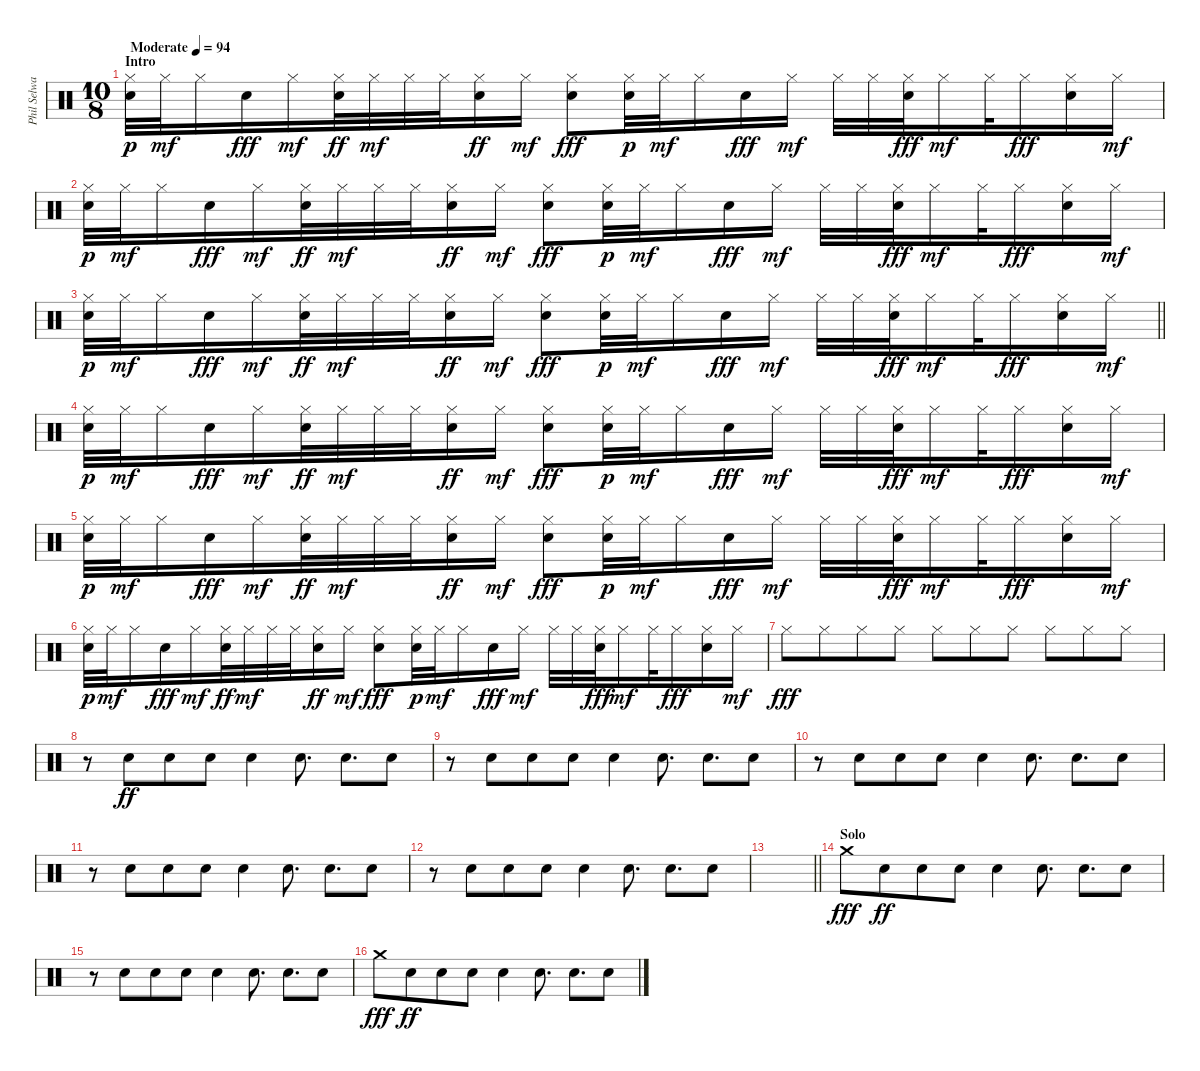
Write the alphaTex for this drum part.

\track ("Phil Selway" "Phil Selwa") {instrument percussion}
\staff {score}
\articulation defaults
\ts (10 8)
\section ("" "Intro")
\tempo (94 "Moderate")
\clef neutral
\ks c
("Hi-Hat (closed)" "Hand Clap (hit)").32{dy p} "Hi-Hat (closed)".32{dy mf} "Hi-Hat (closed)".16 "Hand Clap (hit)".16{dy fff} "Hi-Hat (closed)".16{dy mf} ("Hi-Hat (closed)" "Hand Clap (hit)").32{dy ff} "Hi-Hat (closed)".32{dy mf} "Hi-Hat (closed)".32 "Hi-Hat (closed)".32 ("Hi-Hat (closed)" "Hand Clap (hit)").16{dy ff} "Hi-Hat (closed)".16{dy mf} ("Hi-Hat (closed)" "Hand Clap (hit)").8{dy fff} ("Hi-Hat (closed)" "Hand Clap (hit)").32{dy p} "Hi-Hat (closed)".32{dy mf} "Hi-Hat (closed)".16 "Hand Clap (hit)".16{dy fff} "Hi-Hat (closed)".16{dy mf} "Hi-Hat (closed)".32 "Hi-Hat (closed)".32 ("Hi-Hat (closed)" "Hand Clap (hit)").32{dy fff} "Hi-Hat (closed)".16{dy mf} "Hi-Hat (closed)".32 "Hi-Hat (closed)".16{dy fff} ("Hi-Hat (closed)" "Hand Clap (hit)").16 "Hi-Hat (closed)".16{dy mf} |
("Hi-Hat (closed)" "Hand Clap (hit)").32{dy p} "Hi-Hat (closed)".32{dy mf} "Hi-Hat (closed)".16 "Hand Clap (hit)".16{dy fff} "Hi-Hat (closed)".16{dy mf} ("Hi-Hat (closed)" "Hand Clap (hit)").32{dy ff} "Hi-Hat (closed)".32{dy mf} "Hi-Hat (closed)".32 "Hi-Hat (closed)".32 ("Hi-Hat (closed)" "Hand Clap (hit)").16{dy ff} "Hi-Hat (closed)".16{dy mf} ("Hi-Hat (closed)" "Hand Clap (hit)").8{dy fff} ("Hi-Hat (closed)" "Hand Clap (hit)").32{dy p} "Hi-Hat (closed)".32{dy mf} "Hi-Hat (closed)".16 "Hand Clap (hit)".16{dy fff} "Hi-Hat (closed)".16{dy mf} "Hi-Hat (closed)".32 "Hi-Hat (closed)".32 ("Hi-Hat (closed)" "Hand Clap (hit)").32{dy fff} "Hi-Hat (closed)".16{dy mf} "Hi-Hat (closed)".32 "Hi-Hat (closed)".16{dy fff} ("Hi-Hat (closed)" "Hand Clap (hit)").16 "Hi-Hat (closed)".16{dy mf} |
\barLineRight lightlight
("Hi-Hat (closed)" "Hand Clap (hit)").32{dy p} "Hi-Hat (closed)".32{dy mf} "Hi-Hat (closed)".16 "Hand Clap (hit)".16{dy fff} "Hi-Hat (closed)".16{dy mf} ("Hi-Hat (closed)" "Hand Clap (hit)").32{dy ff} "Hi-Hat (closed)".32{dy mf} "Hi-Hat (closed)".32 "Hi-Hat (closed)".32 ("Hi-Hat (closed)" "Hand Clap (hit)").16{dy ff} "Hi-Hat (closed)".16{dy mf} ("Hi-Hat (closed)" "Hand Clap (hit)").8{dy fff} ("Hi-Hat (closed)" "Hand Clap (hit)").32{dy p} "Hi-Hat (closed)".32{dy mf} "Hi-Hat (closed)".16 "Hand Clap (hit)".16{dy fff} "Hi-Hat (closed)".16{dy mf} "Hi-Hat (closed)".32 "Hi-Hat (closed)".32 ("Hi-Hat (closed)" "Hand Clap (hit)").32{dy fff} "Hi-Hat (closed)".16{dy mf} "Hi-Hat (closed)".32 "Hi-Hat (closed)".16{dy fff} ("Hi-Hat (closed)" "Hand Clap (hit)").16 "Hi-Hat (closed)".16{dy mf} |
\section ("" "")
("Hi-Hat (closed)" "Hand Clap (hit)").32{dy p} "Hi-Hat (closed)".32{dy mf} "Hi-Hat (closed)".16 "Hand Clap (hit)".16{dy fff} "Hi-Hat (closed)".16{dy mf} ("Hi-Hat (closed)" "Hand Clap (hit)").32{dy ff} "Hi-Hat (closed)".32{dy mf} "Hi-Hat (closed)".32 "Hi-Hat (closed)".32 ("Hi-Hat (closed)" "Hand Clap (hit)").16{dy ff} "Hi-Hat (closed)".16{dy mf} ("Hi-Hat (closed)" "Hand Clap (hit)").8{dy fff} ("Hi-Hat (closed)" "Hand Clap (hit)").32{dy p} "Hi-Hat (closed)".32{dy mf} "Hi-Hat (closed)".16 "Hand Clap (hit)".16{dy fff} "Hi-Hat (closed)".16{dy mf} "Hi-Hat (closed)".32 "Hi-Hat (closed)".32 ("Hi-Hat (closed)" "Hand Clap (hit)").32{dy fff} "Hi-Hat (closed)".16{dy mf} "Hi-Hat (closed)".32 "Hi-Hat (closed)".16{dy fff} ("Hi-Hat (closed)" "Hand Clap (hit)").16 "Hi-Hat (closed)".16{dy mf} |
("Hi-Hat (closed)" "Hand Clap (hit)").32{dy p} "Hi-Hat (closed)".32{dy mf} "Hi-Hat (closed)".16 "Hand Clap (hit)".16{dy fff} "Hi-Hat (closed)".16{dy mf} ("Hi-Hat (closed)" "Hand Clap (hit)").32{dy ff} "Hi-Hat (closed)".32{dy mf} "Hi-Hat (closed)".32 "Hi-Hat (closed)".32 ("Hi-Hat (closed)" "Hand Clap (hit)").16{dy ff} "Hi-Hat (closed)".16{dy mf} ("Hi-Hat (closed)" "Hand Clap (hit)").8{dy fff} ("Hi-Hat (closed)" "Hand Clap (hit)").32{dy p} "Hi-Hat (closed)".32{dy mf} "Hi-Hat (closed)".16 "Hand Clap (hit)".16{dy fff} "Hi-Hat (closed)".16{dy mf} "Hi-Hat (closed)".32 "Hi-Hat (closed)".32 ("Hi-Hat (closed)" "Hand Clap (hit)").32{dy fff} "Hi-Hat (closed)".16{dy mf} "Hi-Hat (closed)".32 "Hi-Hat (closed)".16{dy fff} ("Hi-Hat (closed)" "Hand Clap (hit)").16 "Hi-Hat (closed)".16{dy mf} |
("Hi-Hat (closed)" "Hand Clap (hit)").32{dy p} "Hi-Hat (closed)".32{dy mf} "Hi-Hat (closed)".16 "Hand Clap (hit)".16{dy fff} "Hi-Hat (closed)".16{dy mf} ("Hi-Hat (closed)" "Hand Clap (hit)").32{dy ff} "Hi-Hat (closed)".32{dy mf} "Hi-Hat (closed)".32 "Hi-Hat (closed)".32 ("Hi-Hat (closed)" "Hand Clap (hit)").16{dy ff} "Hi-Hat (closed)".16{dy mf} ("Hi-Hat (closed)" "Hand Clap (hit)").8{dy fff} ("Hi-Hat (closed)" "Hand Clap (hit)").32{dy p} "Hi-Hat (closed)".32{dy mf} "Hi-Hat (closed)".16 "Hand Clap (hit)".16{dy fff} "Hi-Hat (closed)".16{dy mf} "Hi-Hat (closed)".32 "Hi-Hat (closed)".32 ("Hi-Hat (closed)" "Hand Clap (hit)").32{dy fff} "Hi-Hat (closed)".16{dy mf} "Hi-Hat (closed)".32 "Hi-Hat (closed)".16{dy fff} ("Hi-Hat (closed)" "Hand Clap (hit)").16 "Hi-Hat (closed)".16{dy mf} |
"Hi-Hat (closed)".8{dy fff} "Hi-Hat (closed)".8 "Hi-Hat (closed)".8 "Hi-Hat (closed)".8 "Hi-Hat (closed)".8 "Hi-Hat (closed)".8 "Hi-Hat (closed)".8 "Hi-Hat (closed)".8 "Hi-Hat (closed)".8 "Hi-Hat (closed)".8 |
r.8 "Hand Clap (hit)".8{dy ff} "Hand Clap (hit)".8 "Hand Clap (hit)".8 "Hand Clap (hit)".4 "Hand Clap (hit)".8{d} "Hand Clap (hit)".8{d} "Hand Clap (hit)".8 |
r.8 "Hand Clap (hit)".8 "Hand Clap (hit)".8 "Hand Clap (hit)".8 "Hand Clap (hit)".4 "Hand Clap (hit)".8{d} "Hand Clap (hit)".8{d} "Hand Clap (hit)".8 |
r.8 "Hand Clap (hit)".8 "Hand Clap (hit)".8 "Hand Clap (hit)".8 "Hand Clap (hit)".4 "Hand Clap (hit)".8{d} "Hand Clap (hit)".8{d} "Hand Clap (hit)".8 |
r.8 "Hand Clap (hit)".8 "Hand Clap (hit)".8 "Hand Clap (hit)".8 "Hand Clap (hit)".4 "Hand Clap (hit)".8{d} "Hand Clap (hit)".8{d} "Hand Clap (hit)".8 |
r.8 "Hand Clap (hit)".8 "Hand Clap (hit)".8 "Hand Clap (hit)".8 "Hand Clap (hit)".4 "Hand Clap (hit)".8{d} "Hand Clap (hit)".8{d} "Hand Clap (hit)".8 |
\barLineRight lightlight
|
\section ("" "Solo")
"Crash medium (hit)".8{dy fff} "Hand Clap (hit)".8{dy ff} "Hand Clap (hit)".8 "Hand Clap (hit)".8 "Hand Clap (hit)".4 "Hand Clap (hit)".8{d} "Hand Clap (hit)".8{d} "Hand Clap (hit)".8 |
r.8 "Hand Clap (hit)".8 "Hand Clap (hit)".8 "Hand Clap (hit)".8 "Hand Clap (hit)".4 "Hand Clap (hit)".8{d} "Hand Clap (hit)".8{d} "Hand Clap (hit)".8 |
"Crash medium (hit)".8{dy fff} "Hand Clap (hit)".8{dy ff} "Hand Clap (hit)".8 "Hand Clap (hit)".8 "Hand Clap (hit)".4 "Hand Clap (hit)".8{d} "Hand Clap (hit)".8{d} "Hand Clap (hit)".8
